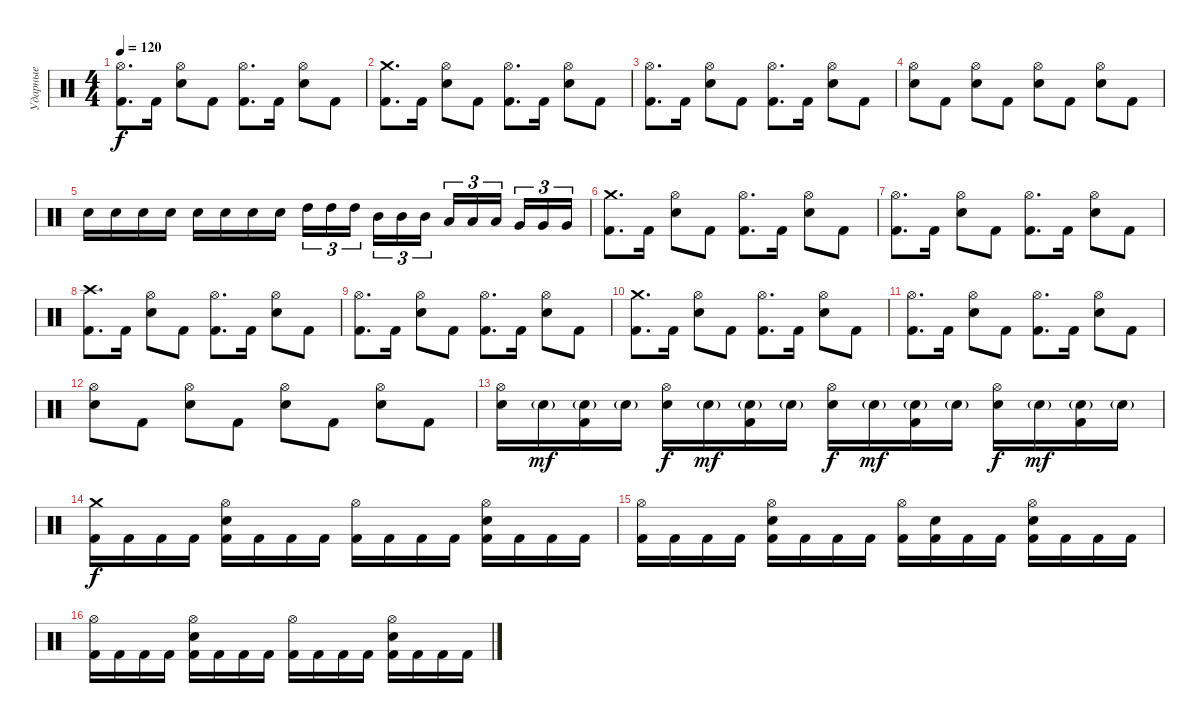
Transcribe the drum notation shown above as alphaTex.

\track ("Ударные" "Ударные") {instrument percussion}
\staff {score}
\articulation defaults
\ts (4 4)
\tempo 120
\clef neutral
\ks c
("Hi-Hat (open)" "Kick (hit) 2").8{d dy f} "Kick (hit) 2".16 ("Hi-Hat (open)" "Electric Snare (hit)").8 "Kick (hit) 2".8 ("Hi-Hat (open)" "Kick (hit) 2").8{d} "Kick (hit) 2".16 ("Hi-Hat (open)" "Electric Snare (hit)").8 "Kick (hit) 2".8 |
("Crash medium (hit)" "Kick (hit) 2").8{d} "Kick (hit) 2".16 ("Hi-Hat (open)" "Electric Snare (hit)").8 "Kick (hit) 2".8 ("Hi-Hat (open)" "Kick (hit) 2").8{d} "Kick (hit) 2".16 ("Hi-Hat (open)" "Electric Snare (hit)").8 "Kick (hit) 2".8 |
("Hi-Hat (open)" "Kick (hit) 2").8{d} "Kick (hit) 2".16 ("Hi-Hat (open)" "Electric Snare (hit)").8 "Kick (hit) 2".8 ("Hi-Hat (open)" "Kick (hit) 2").8{d} "Kick (hit) 2".16 ("Hi-Hat (open)" "Electric Snare (hit)").8 "Kick (hit) 2".8 |
("Hi-Hat (open)" "Electric Snare (hit)").8 "Kick (hit) 2".8 ("Hi-Hat (open)" "Electric Snare (hit)").8 "Kick (hit) 2".8 ("Hi-Hat (open)" "Electric Snare (hit)").8 "Kick (hit) 2".8 ("Hi-Hat (open)" "Electric Snare (hit)").8 "Kick (hit) 2".8 |
"Electric Snare (hit)".16 "Electric Snare (hit)".16 "Electric Snare (hit)".16 "Electric Snare (hit)".16 "Electric Snare (hit)".16 "Electric Snare (hit)".16 "Electric Snare (hit)".16 "Electric Snare (hit)".16 "High Tom (hit)".16{tu (3 2)} "High Tom (hit)".16{tu (3 2)} "High Tom (hit)".16{tu (3 2) beam splitsecondary} "Mid Tom (hit)".16{tu (3 2)} "Mid Tom (hit)".16{tu (3 2)} "Mid Tom (hit)".16{tu (3 2)} "Low Tom (hit)".16{tu (3 2)} "Low Tom (hit)".16{tu (3 2)} "Low Tom (hit)".16{tu (3 2) beam splitsecondary} "Very Low Tom (hit)".16{tu (3 2)} "Very Low Tom (hit)".16{tu (3 2)} "Very Low Tom (hit)".16{tu (3 2)} |
("Crash medium (hit)" "Kick (hit) 2").8{d} "Kick (hit) 2".16 ("Hi-Hat (open)" "Electric Snare (hit)").8 "Kick (hit) 2".8 ("Hi-Hat (open)" "Kick (hit) 2").8{d} "Kick (hit) 2".16 ("Hi-Hat (open)" "Electric Snare (hit)").8 "Kick (hit) 2".8 |
("Hi-Hat (open)" "Kick (hit) 2").8{d} "Kick (hit) 2".16 ("Hi-Hat (open)" "Electric Snare (hit)").8 "Kick (hit) 2".8 ("Hi-Hat (open)" "Kick (hit) 2").8{d} "Kick (hit) 2".16 ("Hi-Hat (open)" "Electric Snare (hit)").8 "Kick (hit) 2".8 |
("Crash high (hit)" "Kick (hit) 2").8{d} "Kick (hit) 2".16 ("Hi-Hat (open)" "Electric Snare (hit)").8 "Kick (hit) 2".8 ("Hi-Hat (open)" "Kick (hit) 2").8{d} "Kick (hit) 2".16 ("Hi-Hat (open)" "Electric Snare (hit)").8 "Kick (hit) 2".8 |
("Hi-Hat (open)" "Kick (hit) 2").8{d} "Kick (hit) 2".16 ("Hi-Hat (open)" "Electric Snare (hit)").8 "Kick (hit) 2".8 ("Hi-Hat (open)" "Kick (hit) 2").8{d} "Kick (hit) 2".16 ("Hi-Hat (open)" "Electric Snare (hit)").8 "Kick (hit) 2".8 |
("Crash medium (hit)" "Kick (hit) 2").8{d} "Kick (hit) 2".16 ("Hi-Hat (open)" "Electric Snare (hit)").8 "Kick (hit) 2".8 ("Hi-Hat (open)" "Kick (hit) 2").8{d} "Kick (hit) 2".16 ("Hi-Hat (open)" "Electric Snare (hit)").8 "Kick (hit) 2".8 |
("Hi-Hat (open)" "Kick (hit) 2").8{d} "Kick (hit) 2".16 ("Hi-Hat (open)" "Electric Snare (hit)").8 "Kick (hit) 2".8 ("Hi-Hat (open)" "Kick (hit) 2").8{d} "Kick (hit) 2".16 ("Hi-Hat (open)" "Electric Snare (hit)").8 "Kick (hit) 2".8 |
("Hi-Hat (open)" "Electric Snare (hit)").8 "Kick (hit) 2".8 ("Hi-Hat (open)" "Electric Snare (hit)").8 "Kick (hit) 2".8 ("Hi-Hat (open)" "Electric Snare (hit)").8 "Kick (hit) 2".8 ("Hi-Hat (open)" "Electric Snare (hit)").8 "Kick (hit) 2".8 |
("Hi-Hat (open)" "Electric Snare (hit)").16 "Electric Snare (hit)"{g}.16{dy mf} ("Electric Snare (hit)"{g} "Kick (hit) 2").16 "Electric Snare (hit)"{g}.16 ("Hi-Hat (open)" "Electric Snare (hit)").16{dy f} "Electric Snare (hit)"{g}.16{dy mf} ("Electric Snare (hit)"{g} "Kick (hit) 2").16 "Electric Snare (hit)"{g}.16 ("Hi-Hat (open)" "Electric Snare (hit)").16{dy f} "Electric Snare (hit)"{g}.16{dy mf} ("Electric Snare (hit)"{g} "Kick (hit) 2").16 "Electric Snare (hit)"{g}.16 ("Hi-Hat (open)" "Electric Snare (hit)").16{dy f} "Electric Snare (hit)"{g}.16{dy mf} ("Electric Snare (hit)"{g} "Kick (hit) 2").16 "Electric Snare (hit)"{g}.16 |
("Crash medium (hit)" "Kick (hit) 2").16{dy f} "Kick (hit) 2".16 "Kick (hit) 2".16 "Kick (hit) 2".16 ("Hi-Hat (open)" "Electric Snare (hit)" "Kick (hit) 2").16 "Kick (hit) 2".16 "Kick (hit) 2".16 "Kick (hit) 2".16 ("Hi-Hat (open)" "Kick (hit) 2").16 "Kick (hit) 2".16 "Kick (hit) 2".16 "Kick (hit) 2".16 ("Hi-Hat (open)" "Electric Snare (hit)" "Kick (hit) 2").16 "Kick (hit) 2".16 "Kick (hit) 2".16 "Kick (hit) 2".16 |
("Hi-Hat (open)" "Kick (hit) 2").16 "Kick (hit) 2".16 "Kick (hit) 2".16 "Kick (hit) 2".16 ("Hi-Hat (open)" "Electric Snare (hit)" "Kick (hit) 2").16 "Kick (hit) 2".16 "Kick (hit) 2".16 "Kick (hit) 2".16 ("Hi-Hat (open)" "Kick (hit) 2").16 ("Electric Snare (hit)" "Kick (hit) 2").16 "Kick (hit) 2".16 "Kick (hit) 2".16 ("Hi-Hat (open)" "Electric Snare (hit)" "Kick (hit) 2").16 "Kick (hit) 2".16 "Kick (hit) 2".16 "Kick (hit) 2".16 |
("Hi-Hat (open)" "Kick (hit) 2").16 "Kick (hit) 2".16 "Kick (hit) 2".16 "Kick (hit) 2".16 ("Hi-Hat (open)" "Electric Snare (hit)" "Kick (hit) 2").16 "Kick (hit) 2".16 "Kick (hit) 2".16 "Kick (hit) 2".16 ("Hi-Hat (open)" "Kick (hit) 2").16 "Kick (hit) 2".16 "Kick (hit) 2".16 "Kick (hit) 2".16 ("Hi-Hat (open)" "Electric Snare (hit)" "Kick (hit) 2").16 "Kick (hit) 2".16 "Kick (hit) 2".16 "Kick (hit) 2".16
